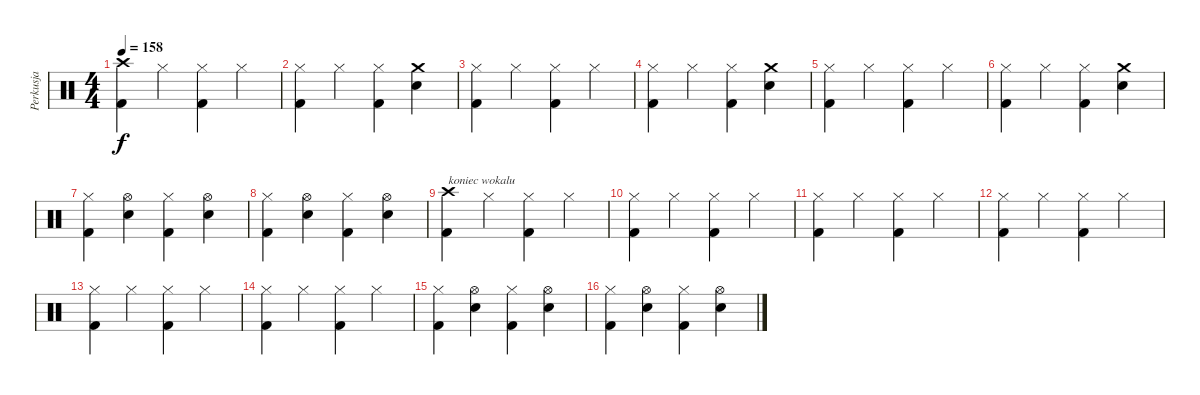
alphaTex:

\track ("Perkusja" "Perkusja") {instrument percussion}
\staff {score}
\articulation defaults
\ts (4 4)
\tempo 158
\clef neutral
\ks c
("Crash high (hit)" "Kick (hit) 2").4{dy f} "Hi-Hat (closed)".4 ("Hi-Hat (closed)" "Kick (hit) 2").4 "Hi-Hat (closed)".4 |
("Hi-Hat (closed)" "Kick (hit) 2").4 "Hi-Hat (closed)".4 ("Hi-Hat (closed)" "Kick (hit) 2").4 ("Crash medium (hit)" "Snare (hit) 2").4 |
("Hi-Hat (closed)" "Kick (hit) 2").4 "Hi-Hat (closed)".4 ("Hi-Hat (closed)" "Kick (hit) 2").4 "Hi-Hat (closed)".4 |
("Hi-Hat (closed)" "Kick (hit) 2").4 "Hi-Hat (closed)".4 ("Hi-Hat (closed)" "Kick (hit) 2").4 ("Crash medium (hit)" "Snare (hit) 2").4 |
("Hi-Hat (closed)" "Kick (hit) 2").4 "Hi-Hat (closed)".4 ("Hi-Hat (closed)" "Kick (hit) 2").4 "Hi-Hat (closed)".4 |
("Hi-Hat (closed)" "Kick (hit) 2").4 "Hi-Hat (closed)".4 ("Hi-Hat (closed)" "Kick (hit) 2").4 ("Crash medium (hit)" "Snare (hit) 2").4 |
("Hi-Hat (closed)" "Kick (hit) 2").4 ("Hi-Hat (open)" "Snare (hit) 2").4 ("Hi-Hat (closed)" "Kick (hit) 2").4 ("Hi-Hat (open)" "Snare (hit) 2").4 |
("Hi-Hat (closed)" "Kick (hit) 2").4 ("Hi-Hat (open)" "Snare (hit) 2").4 ("Hi-Hat (closed)" "Kick (hit) 2").4 ("Hi-Hat (open)" "Snare (hit) 2").4 |
("Crash high (hit)" "Kick (hit) 2").4{txt "koniec wokalu"} "Hi-Hat (closed)".4 ("Hi-Hat (closed)" "Kick (hit) 2").4 "Hi-Hat (closed)".4 |
("Hi-Hat (closed)" "Kick (hit) 2").4 "Hi-Hat (closed)".4 ("Hi-Hat (closed)" "Kick (hit) 2").4 "Hi-Hat (closed)".4 |
("Hi-Hat (closed)" "Kick (hit) 2").4 "Hi-Hat (closed)".4 ("Hi-Hat (closed)" "Kick (hit) 2").4 "Hi-Hat (closed)".4 |
("Hi-Hat (closed)" "Kick (hit) 2").4 "Hi-Hat (closed)".4 ("Hi-Hat (closed)" "Kick (hit) 2").4 "Hi-Hat (closed)".4 |
("Hi-Hat (closed)" "Kick (hit) 2").4 "Hi-Hat (closed)".4 ("Hi-Hat (closed)" "Kick (hit) 2").4 "Hi-Hat (closed)".4 |
("Hi-Hat (closed)" "Kick (hit) 2").4 "Hi-Hat (closed)".4 ("Hi-Hat (closed)" "Kick (hit) 2").4 "Hi-Hat (closed)".4 |
("Hi-Hat (closed)" "Kick (hit) 2").4 ("Hi-Hat (open)" "Snare (hit) 2").4 ("Hi-Hat (closed)" "Kick (hit) 2").4 ("Hi-Hat (open)" "Snare (hit) 2").4 |
("Hi-Hat (closed)" "Kick (hit) 2").4 ("Hi-Hat (open)" "Snare (hit) 2").4 ("Hi-Hat (closed)" "Kick (hit) 2").4 ("Hi-Hat (open)" "Snare (hit) 2").4
